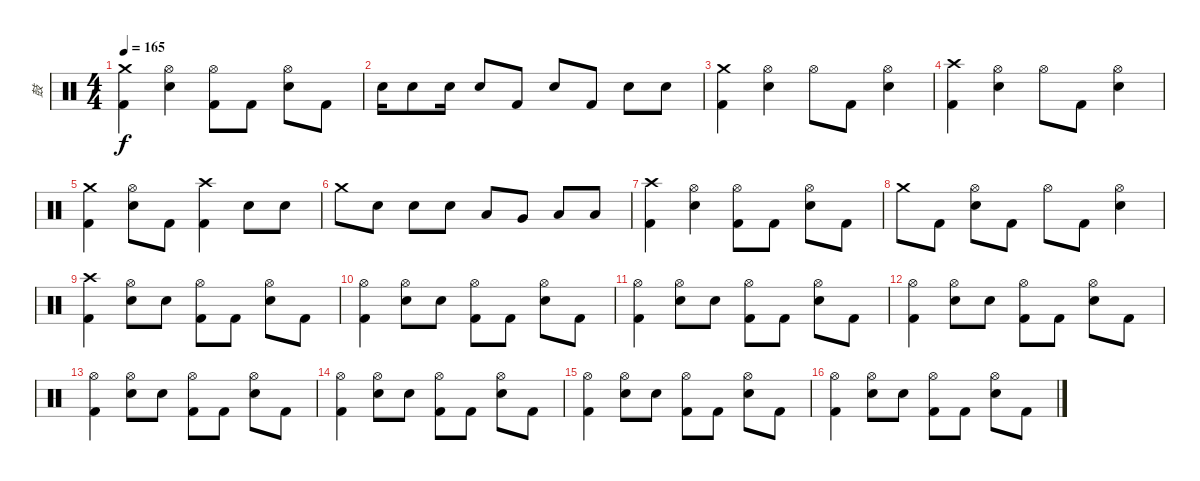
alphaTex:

\track ("鼓" "鼓") {instrument percussion}
\staff {score}
\articulation defaults
\ts (4 4)
\tempo 165
\clef neutral
\ks c
("Crash medium (hit)" "Kick (hit) 2").4{dy f} ("Hi-Hat (open)" "Snare (hit) 2").4 ("Hi-Hat (open)" "Kick (hit) 2").8 "Kick (hit) 2".8 ("Hi-Hat (open)" "Snare (hit) 2").8 "Kick (hit) 2".8 |
"Snare (hit) 2".16 "Snare (hit) 2".8 "Snare (hit) 2".16 "Snare (hit) 2".8 "Kick (hit) 2".8 "Snare (hit) 2".8 "Kick (hit) 2".8 "Snare (hit) 2".8 "Snare (hit) 2".8 |
("Crash medium (hit)" "Kick (hit) 2").4 ("Hi-Hat (open)" "Snare (hit) 2").4 "Hi-Hat (open)".8 "Kick (hit) 2".8 ("Hi-Hat (open)" "Snare (hit) 2").4 |
("Crash high (hit)" "Kick (hit) 2").4 ("Hi-Hat (open)" "Snare (hit) 2").4 "Hi-Hat (open)".8 "Kick (hit) 2".8 ("Hi-Hat (open)" "Snare (hit) 2").4 |
("Crash medium (hit)" "Kick (hit) 2").4 ("Hi-Hat (open)" "Snare (hit) 2").8 "Kick (hit) 2".8 ("Crash high (hit)" "Kick (hit) 2").4 "Snare (hit) 2".8 "Snare (hit) 2".8 |
"Crash medium (hit)".8 "Snare (hit) 2".8 "Snare (hit) 2".8 "Snare (hit) 2".8 "Low Tom (hit)".8 "Very Low Tom (hit)".8 "Low Floor Tom (hit)".8 "Low Floor Tom (hit)".8 |
("Crash high (hit)" "Kick (hit) 2").4 ("Hi-Hat (open)" "Snare (hit) 2").4 ("Hi-Hat (open)" "Kick (hit) 2").8 "Kick (hit) 2".8 ("Hi-Hat (open)" "Snare (hit) 2").8 "Kick (hit) 2".8 |
"Crash medium (hit)".8 "Kick (hit) 2".8 ("Hi-Hat (open)" "Snare (hit) 2").8 "Kick (hit) 2".8 "Hi-Hat (open)".8 "Kick (hit) 2".8 ("Hi-Hat (open)" "Snare (hit) 2").4 |
("Crash high (hit)" "Kick (hit) 2").4 ("Hi-Hat (open)" "Snare (hit) 2").8 "Snare (hit) 2".8 ("Hi-Hat (open)" "Kick (hit) 2").8 "Kick (hit) 2".8 ("Hi-Hat (open)" "Snare (hit) 2").8 "Kick (hit) 2".8 |
("Hi-Hat (open)" "Kick (hit) 2").4 ("Hi-Hat (open)" "Snare (hit) 2").8 "Snare (hit) 2".8 ("Hi-Hat (open)" "Kick (hit) 2").8 "Kick (hit) 2".8 ("Hi-Hat (open)" "Snare (hit) 2").8 "Kick (hit) 2".8 |
("Hi-Hat (open)" "Kick (hit) 2").4 ("Hi-Hat (open)" "Snare (hit) 2").8 "Snare (hit) 2".8 ("Hi-Hat (open)" "Kick (hit) 2").8 "Kick (hit) 2".8 ("Hi-Hat (open)" "Snare (hit) 2").8 "Kick (hit) 2".8 |
("Hi-Hat (open)" "Kick (hit) 2").4 ("Hi-Hat (open)" "Snare (hit) 2").8 "Snare (hit) 2".8 ("Hi-Hat (open)" "Kick (hit) 2").8 "Kick (hit) 2".8 ("Hi-Hat (open)" "Snare (hit) 2").8 "Kick (hit) 2".8 |
("Hi-Hat (open)" "Kick (hit) 2").4 ("Hi-Hat (open)" "Snare (hit) 2").8 "Snare (hit) 2".8 ("Hi-Hat (open)" "Kick (hit) 2").8 "Kick (hit) 2".8 ("Hi-Hat (open)" "Snare (hit) 2").8 "Kick (hit) 2".8 |
("Hi-Hat (open)" "Kick (hit) 2").4 ("Hi-Hat (open)" "Snare (hit) 2").8 "Snare (hit) 2".8 ("Hi-Hat (open)" "Kick (hit) 2").8 "Kick (hit) 2".8 ("Hi-Hat (open)" "Snare (hit) 2").8 "Kick (hit) 2".8 |
("Hi-Hat (open)" "Kick (hit) 2").4 ("Hi-Hat (open)" "Snare (hit) 2").8 "Snare (hit) 2".8 ("Hi-Hat (open)" "Kick (hit) 2").8 "Kick (hit) 2".8 ("Hi-Hat (open)" "Snare (hit) 2").8 "Kick (hit) 2".8 |
("Hi-Hat (open)" "Kick (hit) 2").4 ("Hi-Hat (open)" "Snare (hit) 2").8 "Snare (hit) 2".8 ("Hi-Hat (open)" "Kick (hit) 2").8 "Kick (hit) 2".8 ("Hi-Hat (open)" "Snare (hit) 2").8 "Kick (hit) 2".8
